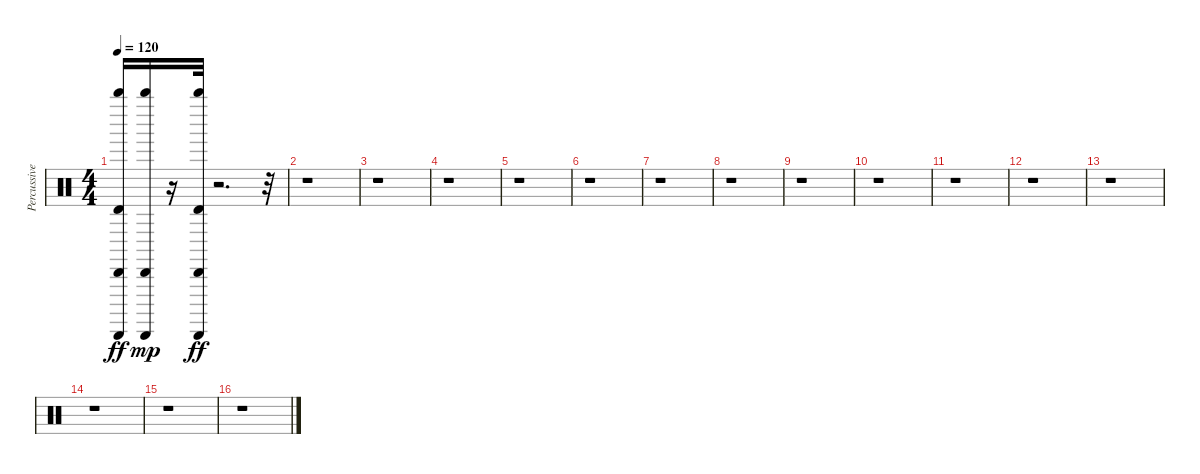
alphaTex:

\track ("Percussive Organ" "Percussive") {instrument percussion}
\staff {score}
\articulation defaults
\ts (4 4)
\tempo 120
\clef neutral
\ks c
("Whistle high (hit)" "Cabasa (hit)" "Timbale high (hit)" "Guiro (scrap-return)").16{dy ff} ("Guiro (scrap-return)" "Whistle high (hit)" "Cabasa (hit)").16{dy mp} r.16 ("Cabasa (hit)" "Whistle high (hit)" "Timbale high (hit)" "Guiro (scrap-return)").32{dy ff} r.2{d} r.32 |
r.1 |
r.1 |
r.1 |
r.1 |
r.1 |
r.1 |
r.1 |
r.1 |
r.1 |
r.1 |
r.1 |
r.1 |
r.1 |
r.1 |
r.1
